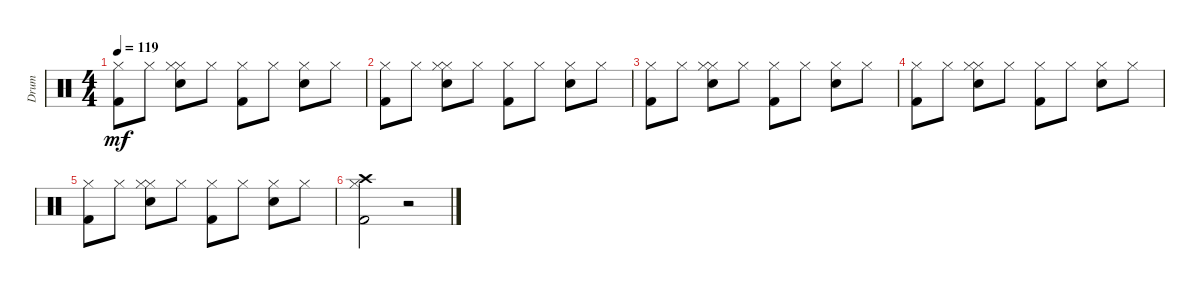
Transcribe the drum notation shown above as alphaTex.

\track ("Drum " "Drum ") {instrument percussion}
\staff {score}
\articulation defaults
\ts (4 4)
\tempo 119
\clef neutral
\ks c
("Hi-Hat (closed)" "Kick (hit) 2").8{dy mf} "Hi-Hat (closed)".8 ("Hi-Hat (closed)" "Hi-Hat (closed)" "Snare (hit) 2").8 "Hi-Hat (closed)".8 ("Hi-Hat (closed)" "Kick (hit) 2").8 "Hi-Hat (closed)".8 ("Hi-Hat (closed)" "Snare (hit) 2").8 "Hi-Hat (closed)".8 |
("Hi-Hat (closed)" "Kick (hit) 2").8 "Hi-Hat (closed)".8 ("Hi-Hat (closed)" "Hi-Hat (closed)" "Snare (hit) 2").8 "Hi-Hat (closed)".8 ("Hi-Hat (closed)" "Kick (hit) 2").8 "Hi-Hat (closed)".8 ("Hi-Hat (closed)" "Snare (hit) 2").8 "Hi-Hat (closed)".8 |
("Hi-Hat (closed)" "Kick (hit) 2").8 "Hi-Hat (closed)".8 ("Hi-Hat (closed)" "Hi-Hat (closed)" "Snare (hit) 2").8 "Hi-Hat (closed)".8 ("Hi-Hat (closed)" "Kick (hit) 2").8 "Hi-Hat (closed)".8 ("Hi-Hat (closed)" "Snare (hit) 2").8 "Hi-Hat (closed)".8 |
("Hi-Hat (closed)" "Kick (hit) 2").8 "Hi-Hat (closed)".8 ("Hi-Hat (closed)" "Hi-Hat (closed)" "Snare (hit) 2").8 "Hi-Hat (closed)".8 ("Hi-Hat (closed)" "Kick (hit) 2").8 "Hi-Hat (closed)".8 ("Hi-Hat (closed)" "Snare (hit) 2").8 "Hi-Hat (closed)".8 |
("Hi-Hat (closed)" "Kick (hit) 2").8 "Hi-Hat (closed)".8 ("Hi-Hat (closed)" "Hi-Hat (closed)" "Snare (hit) 2").8 "Hi-Hat (closed)".8 ("Hi-Hat (closed)" "Kick (hit) 2").8 "Hi-Hat (closed)".8 ("Hi-Hat (closed)" "Snare (hit) 2").8 "Hi-Hat (closed)".8 |
("Hi-Hat (closed)" "Kick (hit) 2" "Crash high (hit)").2 r.2
